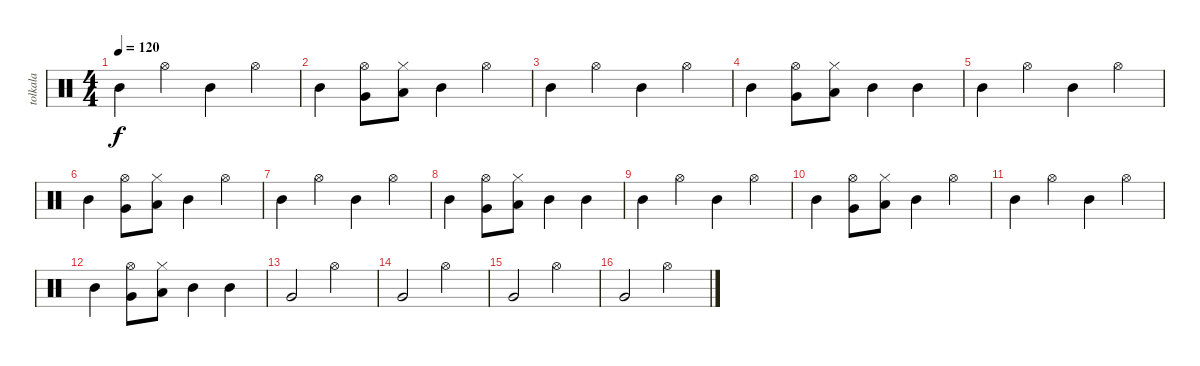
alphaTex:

\track ("tolkala" "tolkala") {instrument percussion}
\staff {score}
\articulation defaults
\ts (4 4)
\tempo 120
\clef neutral
\ks c "Mid Tom (hit)".4{dy f} "Hi-Hat (open)".4 "Mid Tom (hit)".4 "Hi-Hat (open)".4
|
"Mid Tom (hit)".4 ("Very Low Tom (hit)" "Hi-Hat (open)").8 ("Hi-Hat (closed)" "Low Tom (hit)").8 "Mid Tom (hit)".4 "Hi-Hat (open)".4 |
"Mid Tom (hit)".4 "Hi-Hat (open)".4 "Mid Tom (hit)".4 "Hi-Hat (open)".4 |
"Mid Tom (hit)".4 ("Very Low Tom (hit)" "Hi-Hat (open)").8 ("Hi-Hat (closed)" "Low Tom (hit)").8 "Mid Tom (hit)".4 "Mid Tom (hit)".4 |
"Mid Tom (hit)".4 "Hi-Hat (open)".4 "Mid Tom (hit)".4 "Hi-Hat (open)".4 |
"Mid Tom (hit)".4 ("Very Low Tom (hit)" "Hi-Hat (open)").8 ("Hi-Hat (closed)" "Low Tom (hit)").8 "Mid Tom (hit)".4 "Hi-Hat (open)".4 |
"Mid Tom (hit)".4 "Hi-Hat (open)".4 "Mid Tom (hit)".4 "Hi-Hat (open)".4 |
"Mid Tom (hit)".4 ("Very Low Tom (hit)" "Hi-Hat (open)").8 ("Hi-Hat (closed)" "Low Tom (hit)").8 "Mid Tom (hit)".4 "Mid Tom (hit)".4 |
"Mid Tom (hit)".4 "Hi-Hat (open)".4 "Mid Tom (hit)".4 "Hi-Hat (open)".4 |
"Mid Tom (hit)".4 ("Very Low Tom (hit)" "Hi-Hat (open)").8 ("Hi-Hat (closed)" "Low Tom (hit)").8 "Mid Tom (hit)".4 "Hi-Hat (open)".4 |
"Mid Tom (hit)".4 "Hi-Hat (open)".4 "Mid Tom (hit)".4 "Hi-Hat (open)".4 |
"Mid Tom (hit)".4 ("Very Low Tom (hit)" "Hi-Hat (open)").8 ("Hi-Hat (closed)" "Low Tom (hit)").8 "Mid Tom (hit)".4 "Mid Tom (hit)".4 |
"Very Low Tom (hit)".2 "Hi-Hat (open)".2 |
"Very Low Tom (hit)".2 "Hi-Hat (open)".2 |
"Very Low Tom (hit)".2 "Hi-Hat (open)".2 |
"Very Low Tom (hit)".2 "Hi-Hat (open)".2
